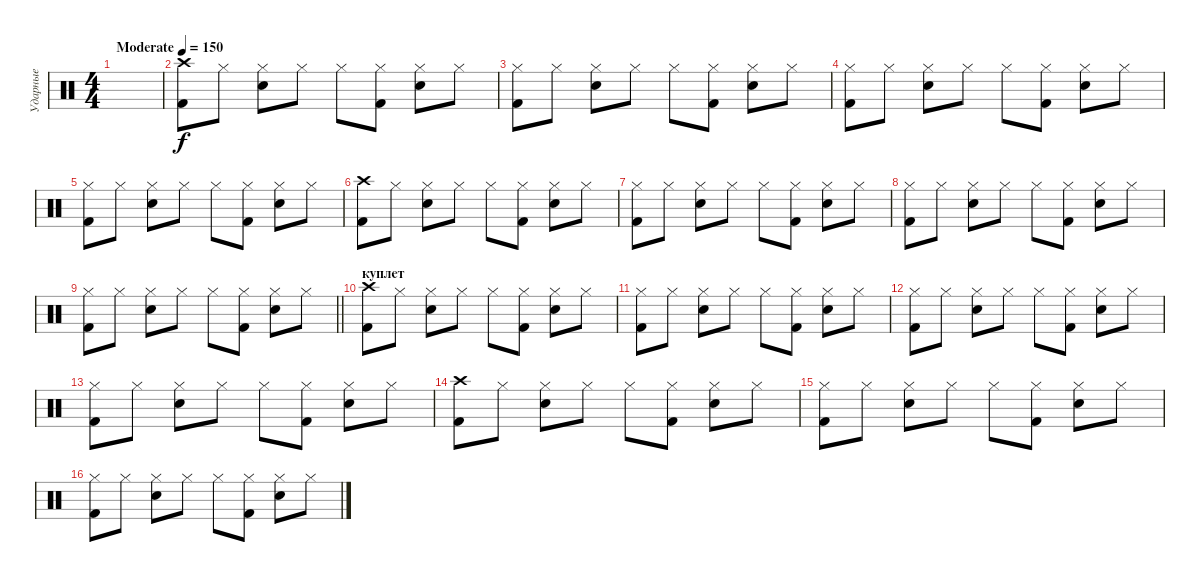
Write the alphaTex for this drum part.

\track ("Ударные" "Ударные") {instrument percussion}
\staff {score}
\articulation defaults
\ts (4 4)
\tempo (150 "Moderate")
\clef neutral
\ks c
|
("Crash high (hit)" "Kick (hit) 2").8 "Hi-Hat (closed)".8 ("Hi-Hat (closed)" "Snare (hit) 2").8 "Hi-Hat (closed)".8 "Hi-Hat (closed)".8 ("Hi-Hat (closed)" "Kick (hit) 2").8 ("Hi-Hat (closed)" "Snare (hit) 2").8 "Hi-Hat (closed)".8 |
("Hi-Hat (closed)" "Kick (hit) 2").8 "Hi-Hat (closed)".8 ("Hi-Hat (closed)" "Snare (hit) 2").8 "Hi-Hat (closed)".8 "Hi-Hat (closed)".8 ("Hi-Hat (closed)" "Kick (hit) 2").8 ("Hi-Hat (closed)" "Snare (hit) 2").8 "Hi-Hat (closed)".8 |
("Hi-Hat (closed)" "Kick (hit) 2").8 "Hi-Hat (closed)".8 ("Hi-Hat (closed)" "Snare (hit) 2").8 "Hi-Hat (closed)".8 "Hi-Hat (closed)".8 ("Hi-Hat (closed)" "Kick (hit) 2").8 ("Hi-Hat (closed)" "Snare (hit) 2").8 "Hi-Hat (closed)".8 |
("Hi-Hat (closed)" "Kick (hit) 2").8 "Hi-Hat (closed)".8 ("Hi-Hat (closed)" "Snare (hit) 2").8 "Hi-Hat (closed)".8 "Hi-Hat (closed)".8 ("Hi-Hat (closed)" "Kick (hit) 2").8 ("Hi-Hat (closed)" "Snare (hit) 2").8 "Hi-Hat (closed)".8 |
("Crash high (hit)" "Kick (hit) 2").8 "Hi-Hat (closed)".8 ("Hi-Hat (closed)" "Snare (hit) 2").8 "Hi-Hat (closed)".8 "Hi-Hat (closed)".8 ("Hi-Hat (closed)" "Kick (hit) 2").8 ("Hi-Hat (closed)" "Snare (hit) 2").8 "Hi-Hat (closed)".8 |
("Hi-Hat (closed)" "Kick (hit) 2").8 "Hi-Hat (closed)".8 ("Hi-Hat (closed)" "Snare (hit) 2").8 "Hi-Hat (closed)".8 "Hi-Hat (closed)".8 ("Hi-Hat (closed)" "Kick (hit) 2").8 ("Hi-Hat (closed)" "Snare (hit) 2").8 "Hi-Hat (closed)".8 |
("Hi-Hat (closed)" "Kick (hit) 2").8 "Hi-Hat (closed)".8 ("Hi-Hat (closed)" "Snare (hit) 2").8 "Hi-Hat (closed)".8 "Hi-Hat (closed)".8 ("Hi-Hat (closed)" "Kick (hit) 2").8 ("Hi-Hat (closed)" "Snare (hit) 2").8 "Hi-Hat (closed)".8 |
\barLineRight lightlight
("Hi-Hat (closed)" "Kick (hit) 2").8 "Hi-Hat (closed)".8 ("Hi-Hat (closed)" "Snare (hit) 2").8 "Hi-Hat (closed)".8 "Hi-Hat (closed)".8 ("Hi-Hat (closed)" "Kick (hit) 2").8 ("Hi-Hat (closed)" "Snare (hit) 2").8 "Hi-Hat (closed)".8 |
\section ("" "куплет")
("Crash high (hit)" "Kick (hit) 2").8 "Hi-Hat (closed)".8 ("Hi-Hat (closed)" "Snare (hit) 2").8 "Hi-Hat (closed)".8 "Hi-Hat (closed)".8 ("Hi-Hat (closed)" "Kick (hit) 2").8 ("Hi-Hat (closed)" "Snare (hit) 2").8 "Hi-Hat (closed)".8 |
("Hi-Hat (closed)" "Kick (hit) 2").8 "Hi-Hat (closed)".8 ("Hi-Hat (closed)" "Snare (hit) 2").8 "Hi-Hat (closed)".8 "Hi-Hat (closed)".8 ("Hi-Hat (closed)" "Kick (hit) 2").8 ("Hi-Hat (closed)" "Snare (hit) 2").8 "Hi-Hat (closed)".8 |
("Hi-Hat (closed)" "Kick (hit) 2").8 "Hi-Hat (closed)".8 ("Hi-Hat (closed)" "Snare (hit) 2").8 "Hi-Hat (closed)".8 "Hi-Hat (closed)".8 ("Hi-Hat (closed)" "Kick (hit) 2").8 ("Hi-Hat (closed)" "Snare (hit) 2").8 "Hi-Hat (closed)".8 |
("Hi-Hat (closed)" "Kick (hit) 2").8 "Hi-Hat (closed)".8 ("Hi-Hat (closed)" "Snare (hit) 2").8 "Hi-Hat (closed)".8 "Hi-Hat (closed)".8 ("Hi-Hat (closed)" "Kick (hit) 2").8 ("Hi-Hat (closed)" "Snare (hit) 2").8 "Hi-Hat (closed)".8 |
("Crash high (hit)" "Kick (hit) 2").8 "Hi-Hat (closed)".8 ("Hi-Hat (closed)" "Snare (hit) 2").8 "Hi-Hat (closed)".8 "Hi-Hat (closed)".8 ("Hi-Hat (closed)" "Kick (hit) 2").8 ("Hi-Hat (closed)" "Snare (hit) 2").8 "Hi-Hat (closed)".8 |
("Hi-Hat (closed)" "Kick (hit) 2").8 "Hi-Hat (closed)".8 ("Hi-Hat (closed)" "Snare (hit) 2").8 "Hi-Hat (closed)".8 "Hi-Hat (closed)".8 ("Hi-Hat (closed)" "Kick (hit) 2").8 ("Hi-Hat (closed)" "Snare (hit) 2").8 "Hi-Hat (closed)".8 |
("Hi-Hat (closed)" "Kick (hit) 2").8 "Hi-Hat (closed)".8 ("Hi-Hat (closed)" "Snare (hit) 2").8 "Hi-Hat (closed)".8 "Hi-Hat (closed)".8 ("Hi-Hat (closed)" "Kick (hit) 2").8 ("Hi-Hat (closed)" "Snare (hit) 2").8 "Hi-Hat (closed)".8
